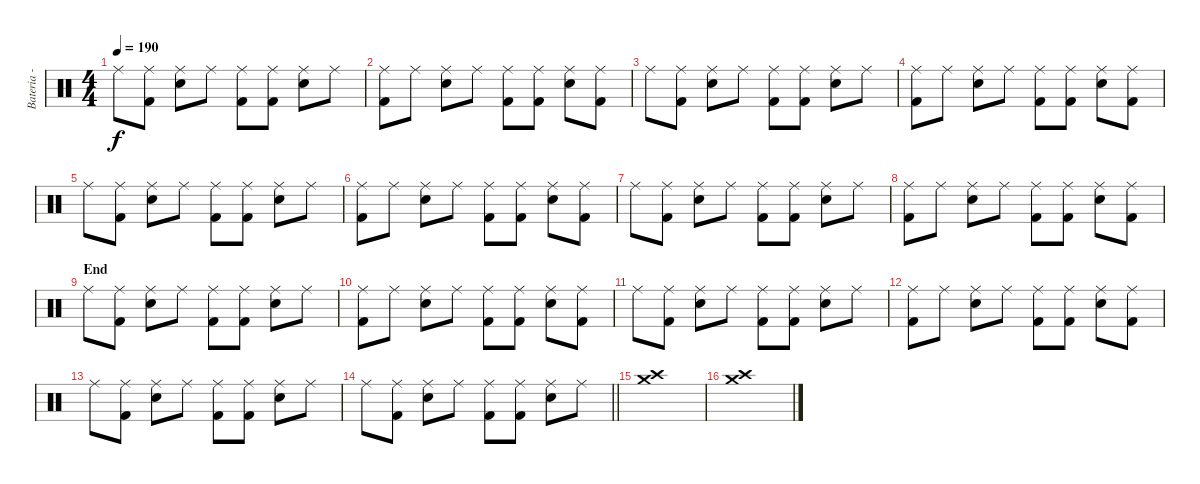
\track ("Bateria - Larzon" "Bateria - ") {instrument percussion}
\staff {score}
\articulation defaults
\ts (4 4)
\tempo 190
\clef neutral
\ks c "Ride (middle)".8{dy f}
("Kick (hit) 2" "Ride (middle)").8 ("Electric Snare (hit)" "Ride (middle)").8 "Ride (middle)".8 ("Kick (hit) 2" "Ride (middle)").8 ("Kick (hit) 2" "Ride (middle)").8 ("Electric Snare (hit)" "Ride (middle)").8 "Ride (middle)".8 |
("Kick (hit) 2" "Ride (middle)").8 "Ride (middle)".8 ("Electric Snare (hit)" "Ride (middle)").8 "Ride (middle)".8 ("Kick (hit) 2" "Ride (middle)").8 ("Kick (hit) 2" "Ride (middle)").8 ("Electric Snare (hit)" "Ride (middle)").8 ("Kick (hit) 2" "Ride (middle)").8 |
"Ride (middle)".8 ("Kick (hit) 2" "Ride (middle)").8 ("Electric Snare (hit)" "Ride (middle)").8 "Ride (middle)".8 ("Kick (hit) 2" "Ride (middle)").8 ("Kick (hit) 2" "Ride (middle)").8 ("Electric Snare (hit)" "Ride (middle)").8 "Ride (middle)".8 |
("Kick (hit) 2" "Ride (middle)").8 "Ride (middle)".8 ("Electric Snare (hit)" "Ride (middle)").8 "Ride (middle)".8 ("Kick (hit) 2" "Ride (middle)").8 ("Kick (hit) 2" "Ride (middle)").8 ("Electric Snare (hit)" "Ride (middle)").8 ("Kick (hit) 2" "Ride (middle)").8 |
"Ride (middle)".8 ("Kick (hit) 2" "Ride (middle)").8 ("Electric Snare (hit)" "Ride (middle)").8 "Ride (middle)".8 ("Kick (hit) 2" "Ride (middle)").8 ("Kick (hit) 2" "Ride (middle)").8 ("Electric Snare (hit)" "Ride (middle)").8 "Ride (middle)".8 |
("Kick (hit) 2" "Ride (middle)").8 "Ride (middle)".8 ("Electric Snare (hit)" "Ride (middle)").8 "Ride (middle)".8 ("Kick (hit) 2" "Ride (middle)").8 ("Kick (hit) 2" "Ride (middle)").8 ("Electric Snare (hit)" "Ride (middle)").8 ("Kick (hit) 2" "Ride (middle)").8 |
"Ride (middle)".8 ("Kick (hit) 2" "Ride (middle)").8 ("Electric Snare (hit)" "Ride (middle)").8 "Ride (middle)".8 ("Kick (hit) 2" "Ride (middle)").8 ("Kick (hit) 2" "Ride (middle)").8 ("Electric Snare (hit)" "Ride (middle)").8 "Ride (middle)".8 |
("Kick (hit) 2" "Ride (middle)").8 "Ride (middle)".8 ("Electric Snare (hit)" "Ride (middle)").8 "Ride (middle)".8 ("Kick (hit) 2" "Ride (middle)").8 ("Kick (hit) 2" "Ride (middle)").8 ("Electric Snare (hit)" "Ride (middle)").8 ("Kick (hit) 2" "Ride (middle)").8 |
\section ("" "End")
"Ride (middle)".8 ("Kick (hit) 2" "Ride (middle)").8 ("Electric Snare (hit)" "Ride (middle)").8 "Ride (middle)".8 ("Kick (hit) 2" "Ride (middle)").8 ("Kick (hit) 2" "Ride (middle)").8 ("Electric Snare (hit)" "Ride (middle)").8 "Ride (middle)".8 |
("Kick (hit) 2" "Ride (middle)").8 "Ride (middle)".8 ("Electric Snare (hit)" "Ride (middle)").8 "Ride (middle)".8 ("Kick (hit) 2" "Ride (middle)").8 ("Kick (hit) 2" "Ride (middle)").8 ("Electric Snare (hit)" "Ride (middle)").8 ("Kick (hit) 2" "Ride (middle)").8 |
"Ride (middle)".8 ("Kick (hit) 2" "Ride (middle)").8 ("Electric Snare (hit)" "Ride (middle)").8 "Ride (middle)".8 ("Kick (hit) 2" "Ride (middle)").8 ("Kick (hit) 2" "Ride (middle)").8 ("Electric Snare (hit)" "Ride (middle)").8 "Ride (middle)".8 |
("Kick (hit) 2" "Ride (middle)").8 "Ride (middle)".8 ("Electric Snare (hit)" "Ride (middle)").8 "Ride (middle)".8 ("Kick (hit) 2" "Ride (middle)").8 ("Kick (hit) 2" "Ride (middle)").8 ("Electric Snare (hit)" "Ride (middle)").8 ("Kick (hit) 2" "Ride (middle)").8 |
"Ride (middle)".8 ("Kick (hit) 2" "Ride (middle)").8 ("Electric Snare (hit)" "Ride (middle)").8 "Ride (middle)".8 ("Kick (hit) 2" "Ride (middle)").8 ("Kick (hit) 2" "Ride (middle)").8 ("Electric Snare (hit)" "Ride (middle)").8 "Ride (middle)".8 |
\barLineRight lightlight "Ride (middle)".8
("Kick (hit) 2" "Ride (middle)").8 ("Electric Snare (hit)" "Ride (middle)").8 "Ride (middle)".8 ("Kick (hit) 2" "Ride (middle)").8 ("Kick (hit) 2" "Ride (middle)").8 ("Electric Snare (hit)" "Ride (middle)").8 "Ride (middle)".8 |
("Crash medium (hit)" "Crash high (hit)").1 |
("Crash medium (hit)" "Crash high (hit)").1
